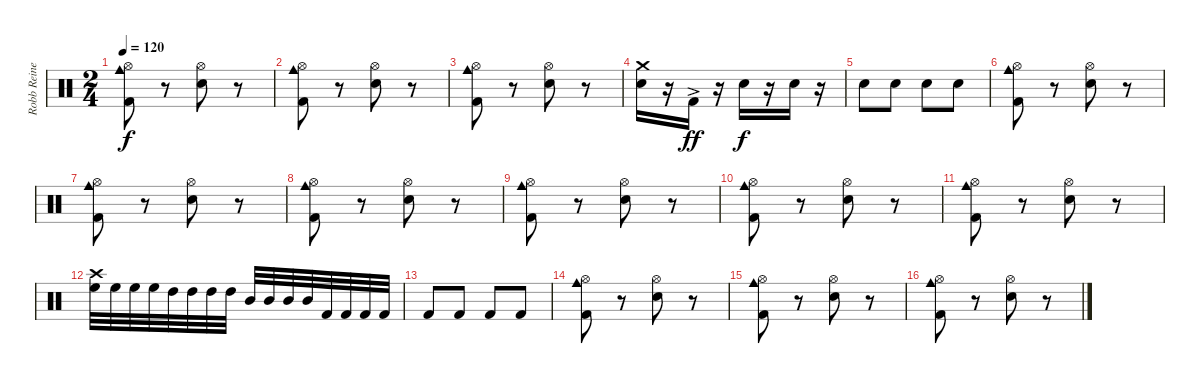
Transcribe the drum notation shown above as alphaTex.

\track ("Robb Reiner" "Robb Reine") {instrument percussion}
\staff {score}
\articulation defaults
\ts (2 4)
\tempo 120
\clef neutral
\ks c
("Cowbell medium (hit)" "Hi-Hat (open)" "Kick (hit) 2").8{dy f} r.8 ("Hi-Hat (open)" "Snare (hit) 2").8 r.8 |
("Cowbell medium (hit)" "Hi-Hat (open)" "Kick (hit) 2").8 r.8 ("Hi-Hat (open)" "Snare (hit) 2").8 r.8 |
("Cowbell medium (hit)" "Hi-Hat (open)" "Kick (hit) 2").8 r.8 ("Hi-Hat (open)" "Snare (hit) 2").8 r.8 |
("Crash medium (hit)" "Snare (hit) 2").16 r.16 "Kick (hit) 2"{ac}.16{dy ff} r.16 "Snare (hit) 2".16{dy f} r.16 "Snare (hit) 2".16 r.16 |
"Snare (hit) 2".8 "Snare (hit) 2".8 "Snare (hit) 2".8 "Snare (hit) 2".8 |
("Cowbell medium (hit)" "Hi-Hat (open)" "Kick (hit) 2").8 r.8 ("Hi-Hat (open)" "Snare (hit) 2").8 r.8 |
("Cowbell medium (hit)" "Hi-Hat (open)" "Kick (hit) 2").8 r.8 ("Hi-Hat (open)" "Snare (hit) 2").8 r.8 |
("Cowbell medium (hit)" "Hi-Hat (open)" "Kick (hit) 2").8 r.8 ("Hi-Hat (open)" "Snare (hit) 2").8 r.8 |
("Cowbell medium (hit)" "Hi-Hat (open)" "Kick (hit) 2").8 r.8 ("Hi-Hat (open)" "Snare (hit) 2").8 r.8 |
("Cowbell medium (hit)" "Hi-Hat (open)" "Kick (hit) 2").8 r.8 ("Hi-Hat (open)" "Snare (hit) 2").8 r.8 |
("Cowbell medium (hit)" "Hi-Hat (open)" "Kick (hit) 2").8 r.8 ("Hi-Hat (open)" "Snare (hit) 2").8 r.8 |
("High Floor Tom (hit)" "Crash high (hit)").32 "High Floor Tom (hit)".32 "High Floor Tom (hit)".32 "High Floor Tom (hit)".32 "High Tom (hit)".32 "High Tom (hit)".32 "High Tom (hit)".32 "High Tom (hit)".32 "Mid Tom (hit)".32 "Mid Tom (hit)".32 "Mid Tom (hit)".32 "Mid Tom (hit)".32 "Kick (hit) 2".32 "Kick (hit) 2".32 "Kick (hit) 2".32 "Kick (hit) 2".32 |
"Kick (hit) 2".8 "Kick (hit) 2".8 "Kick (hit) 2".8 "Kick (hit) 2".8 |
("Cowbell medium (hit)" "Hi-Hat (open)" "Kick (hit) 2").8 r.8 ("Hi-Hat (open)" "Snare (hit) 2").8 r.8 |
("Cowbell medium (hit)" "Hi-Hat (open)" "Kick (hit) 2").8 r.8 ("Hi-Hat (open)" "Snare (hit) 2").8 r.8 |
("Cowbell medium (hit)" "Hi-Hat (open)" "Kick (hit) 2").8 r.8 ("Hi-Hat (open)" "Snare (hit) 2").8 r.8
